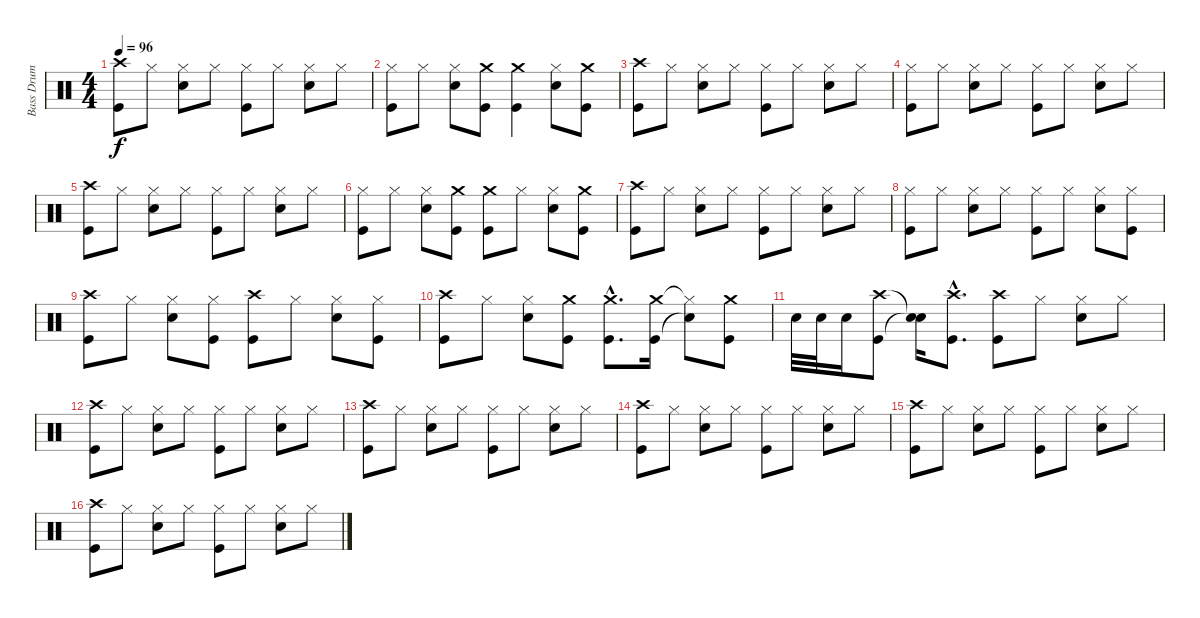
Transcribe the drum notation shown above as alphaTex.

\track ("Bass Drum" "Bass Drum") {instrument percussion}
\staff {score}
\articulation defaults
\ts (4 4)
\tempo 96
\clef neutral
\ks c
("Crash high (hit)" "Kick (hit)").8{dy f} "Hi-Hat (closed)".8 ("Hi-Hat (closed)" "Electric Snare (hit)").8 "Hi-Hat (closed)".8 ("Hi-Hat (closed)" "Kick (hit)").8 "Hi-Hat (closed)".8 ("Hi-Hat (closed)" "Electric Snare (hit)").8 "Hi-Hat (closed)".8 |
("Hi-Hat (closed)" "Kick (hit)").8 "Hi-Hat (closed)".8 ("Hi-Hat (closed)" "Electric Snare (hit)").8 ("Crash medium (hit)" "Kick (hit)").8 ("Crash medium (hit)" "Kick (hit)").4 ("Hi-Hat (closed)" "Electric Snare (hit)").8 ("Crash medium (hit)" "Kick (hit)").8 |
("Crash high (hit)" "Kick (hit)").8 "Hi-Hat (closed)".8 ("Hi-Hat (closed)" "Electric Snare (hit)").8 "Hi-Hat (closed)".8 ("Hi-Hat (closed)" "Kick (hit)").8 "Hi-Hat (closed)".8 ("Hi-Hat (closed)" "Electric Snare (hit)").8 "Hi-Hat (closed)".8 |
("Hi-Hat (closed)" "Kick (hit)").8 "Hi-Hat (closed)".8 ("Hi-Hat (closed)" "Electric Snare (hit)").8 "Hi-Hat (closed)".8 ("Hi-Hat (closed)" "Kick (hit)").8 "Hi-Hat (closed)".8 ("Hi-Hat (closed)" "Electric Snare (hit)").8 "Hi-Hat (closed)".8 |
("Crash high (hit)" "Kick (hit)").8 "Hi-Hat (closed)".8 ("Hi-Hat (closed)" "Electric Snare (hit)").8 "Hi-Hat (closed)".8 ("Hi-Hat (closed)" "Kick (hit)").8 "Hi-Hat (closed)".8 ("Hi-Hat (closed)" "Electric Snare (hit)").8 "Hi-Hat (closed)".8 |
("Hi-Hat (closed)" "Kick (hit)").8 "Hi-Hat (closed)".8 ("Hi-Hat (closed)" "Electric Snare (hit)").8 ("Crash medium (hit)" "Kick (hit)").8 ("Crash medium (hit)" "Kick (hit)").8 "Hi-Hat (closed)".8 ("Hi-Hat (closed)" "Electric Snare (hit)").8 ("Crash medium (hit)" "Kick (hit)").8 |
("Crash high (hit)" "Kick (hit)").8 "Hi-Hat (closed)".8 ("Hi-Hat (closed)" "Electric Snare (hit)").8 "Hi-Hat (closed)".8 ("Hi-Hat (closed)" "Kick (hit)").8 "Hi-Hat (closed)".8 ("Hi-Hat (closed)" "Electric Snare (hit)").8 "Hi-Hat (closed)".8 |
("Hi-Hat (closed)" "Kick (hit)").8 "Hi-Hat (closed)".8 ("Hi-Hat (closed)" "Electric Snare (hit)").8 "Hi-Hat (closed)".8 ("Hi-Hat (closed)" "Kick (hit)").8 "Hi-Hat (closed)".8 ("Hi-Hat (closed)" "Electric Snare (hit)").8 ("Hi-Hat (closed)" "Kick (hit)").8 |
("Crash high (hit)" "Kick (hit)").8 "Hi-Hat (closed)".8 ("Hi-Hat (closed)" "Electric Snare (hit)").8 ("Hi-Hat (closed)" "Kick (hit)").8 ("Crash high (hit)" "Kick (hit)").8 "Hi-Hat (closed)".8 ("Hi-Hat (closed)" "Electric Snare (hit)").8 ("Hi-Hat (closed)" "Kick (hit)").8 |
("Crash high (hit)" "Kick (hit)").8 "Hi-Hat (closed)".8 ("Hi-Hat (closed)" "Electric Snare (hit)").8 ("Crash medium (hit)" "Kick (hit)").8 ("Crash medium (hit)"{hac} "Kick (hit)"{hac}).8{d} ("Crash medium (hit)" "Kick (hit)").16 ("Hi-Hat (closed)"{t} "Electric Snare (hit)"{t}).8 ("Crash medium (hit)" "Kick (hit)").8 |
"Electric Snare (hit)".32 "Electric Snare (hit)".32 "Electric Snare (hit)".16 ("Crash high (hit)" "Kick (hit)").8 ("Snare (hit)"{t} "Snare (hit)"{t}).16 ("Crash high (hit)"{hac} "Kick (hit)"{hac}).8{d} ("Crash high (hit)" "Kick (hit)").8 "Hi-Hat (closed)".8 ("Hi-Hat (closed)" "Electric Snare (hit)").8 "Hi-Hat (closed)".8 |
("Crash high (hit)" "Kick (hit)").8 "Hi-Hat (closed)".8 ("Hi-Hat (closed)" "Electric Snare (hit)").8 "Hi-Hat (closed)".8 ("Hi-Hat (closed)" "Kick (hit)").8 "Hi-Hat (closed)".8 ("Hi-Hat (closed)" "Electric Snare (hit)").8 "Hi-Hat (closed)".8 |
("Crash high (hit)" "Kick (hit)").8 "Hi-Hat (closed)".8 ("Hi-Hat (closed)" "Electric Snare (hit)").8 "Hi-Hat (closed)".8 ("Hi-Hat (closed)" "Kick (hit)").8 "Hi-Hat (closed)".8 ("Hi-Hat (closed)" "Electric Snare (hit)").8 "Hi-Hat (closed)".8 |
("Crash high (hit)" "Kick (hit)").8 "Hi-Hat (closed)".8 ("Hi-Hat (closed)" "Electric Snare (hit)").8 "Hi-Hat (closed)".8 ("Hi-Hat (closed)" "Kick (hit)").8 "Hi-Hat (closed)".8 ("Hi-Hat (closed)" "Electric Snare (hit)").8 "Hi-Hat (closed)".8 |
("Crash high (hit)" "Kick (hit)").8 "Hi-Hat (closed)".8 ("Hi-Hat (closed)" "Electric Snare (hit)").8 "Hi-Hat (closed)".8 ("Hi-Hat (closed)" "Kick (hit)").8 "Hi-Hat (closed)".8 ("Hi-Hat (closed)" "Electric Snare (hit)").8 "Hi-Hat (closed)".8 |
("Crash high (hit)" "Kick (hit)").8 "Hi-Hat (closed)".8 ("Hi-Hat (closed)" "Electric Snare (hit)").8 "Hi-Hat (closed)".8 ("Hi-Hat (closed)" "Kick (hit)").8 "Hi-Hat (closed)".8 ("Hi-Hat (closed)" "Electric Snare (hit)").8 "Hi-Hat (closed)".8
